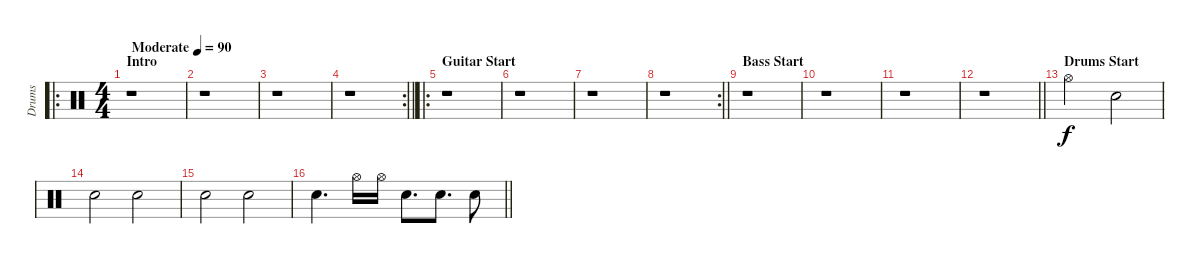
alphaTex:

\track ("Drums" "Drums") {instrument percussion}
\staff {score}
\articulation defaults
\ro
\ts (4 4)
\section ("" "Intro")
\tempo (90 "Moderate")
\clef neutral
\ks c
r.1{dy f} |
r.1 |
r.1 |
\rc 2
\barLineRight lightlight
r.1 |
\ro
\section ("" "Guitar Start")
r.1 |
r.1 |
r.1 |
\rc 2
\barLineRight lightlight
r.1 |
\section ("" "Bass Start")
r.1 |
r.1 |
r.1 |
\barLineRight lightlight
r.1 |
\section ("" "Drums Start")
"Hi-Hat (open)".2 "Snare (hit) 2".2 |
"Snare (hit) 2".2 "Snare (hit) 2".2 |
"Snare (hit) 2".2 "Snare (hit) 2".2 |
\barLineRight lightlight "Snare (hit) 2".4{d} "Hi-Hat (open)".16 "Hi-Hat (open)".16 "Snare (hit) 2".8{d} "Snare (hit) 2".8{d} "Snare (hit) 2".8
